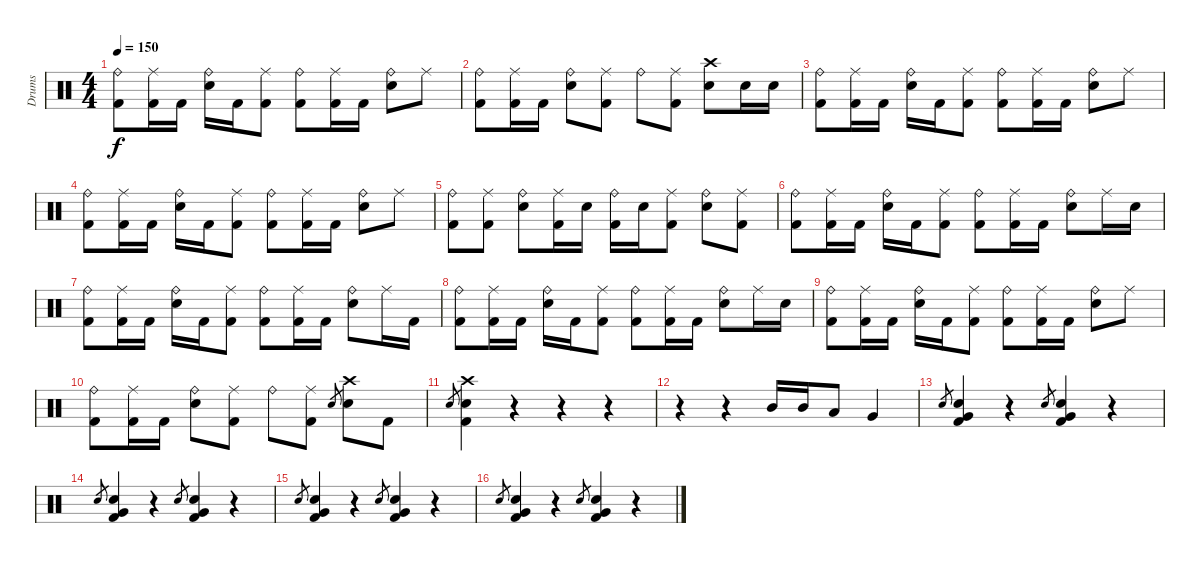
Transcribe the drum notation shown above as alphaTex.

\track ("Drums" "Drums") {instrument percussion}
\staff {score}
\articulation defaults
\ts (4 4)
\tempo 150
\clef neutral
\ks c
("Ride (bell)" "Kick (hit) 2").8{dy f} ("Ride (middle)" "Kick (hit) 2").16 "Kick (hit) 2".16 ("Ride (bell)" "Electric Snare (hit)").16 "Kick (hit) 2".16 ("Ride (middle)" "Kick (hit) 2").8 ("Ride (bell)" "Kick (hit) 2").8 ("Ride (middle)" "Kick (hit) 2").16 "Kick (hit) 2".16 ("Ride (bell)" "Electric Snare (hit)").8 "Ride (middle)".8 |
("Ride (bell)" "Kick (hit) 2").8 ("Ride (middle)" "Kick (hit) 2").16 "Kick (hit) 2".16 ("Ride (bell)" "Electric Snare (hit)").8 ("Ride (middle)" "Kick (hit) 2").8 "Ride (bell)".8 ("Ride (middle)" "Kick (hit) 2").8 ("Crash high (hit)" "Electric Snare (hit)").8 "Electric Snare (hit)".16 "Electric Snare (hit)".16 |
("Ride (bell)" "Kick (hit) 2").8 ("Ride (middle)" "Kick (hit) 2").16 "Kick (hit) 2".16 ("Ride (bell)" "Electric Snare (hit)").16 "Kick (hit) 2".16 ("Ride (middle)" "Kick (hit) 2").8 ("Ride (bell)" "Kick (hit) 2").8 ("Ride (middle)" "Kick (hit) 2").16 "Kick (hit) 2".16 ("Ride (bell)" "Electric Snare (hit)").8 "Ride (middle)".8 |
("Ride (bell)" "Kick (hit) 2").8 ("Ride (middle)" "Kick (hit) 2").16 "Kick (hit) 2".16 ("Ride (bell)" "Electric Snare (hit)").16 "Kick (hit) 2".16 ("Ride (middle)" "Kick (hit) 2").8 ("Ride (bell)" "Kick (hit) 2").8 ("Ride (middle)" "Kick (hit) 2").16 "Kick (hit) 2".16 ("Ride (bell)" "Electric Snare (hit)").8 "Ride (middle)".8 |
("Ride (bell)" "Kick (hit) 2").8 ("Ride (middle)" "Kick (hit) 2").8 ("Ride (bell)" "Electric Snare (hit)").8 ("Ride (middle)" "Kick (hit) 2").16 "Electric Snare (hit)".16 ("Ride (bell)" "Kick (hit) 2").16 "Electric Snare (hit)".16 ("Ride (middle)" "Kick (hit) 2").8 ("Ride (bell)" "Electric Snare (hit)").8 ("Ride (middle)" "Kick (hit) 2").8 |
("Ride (bell)" "Kick (hit) 2").8 ("Ride (middle)" "Kick (hit) 2").16 "Kick (hit) 2".16 ("Ride (bell)" "Electric Snare (hit)").16 "Kick (hit) 2".16 ("Ride (middle)" "Kick (hit) 2").8 ("Ride (bell)" "Kick (hit) 2").8 ("Ride (middle)" "Kick (hit) 2").16 "Kick (hit) 2".16 ("Ride (bell)" "Electric Snare (hit)").8 "Ride (middle)".16 "Electric Snare (hit)".16 |
("Ride (bell)" "Kick (hit) 2").8 ("Ride (middle)" "Kick (hit) 2").16 "Kick (hit) 2".16 ("Ride (bell)" "Electric Snare (hit)").16 "Kick (hit) 2".16 ("Ride (middle)" "Kick (hit) 2").8 ("Ride (bell)" "Kick (hit) 2").8 ("Ride (middle)" "Kick (hit) 2").16 "Kick (hit) 2".16 ("Ride (bell)" "Electric Snare (hit)").8 "Ride (middle)".16 "Kick (hit) 2".16 |
("Ride (bell)" "Kick (hit) 2").8 ("Ride (middle)" "Kick (hit) 2").16 "Kick (hit) 2".16 ("Ride (bell)" "Electric Snare (hit)").16 "Kick (hit) 2".16 ("Ride (middle)" "Kick (hit) 2").8 ("Ride (bell)" "Kick (hit) 2").8 ("Ride (middle)" "Kick (hit) 2").16 "Kick (hit) 2".16 ("Ride (bell)" "Electric Snare (hit)").8 "Ride (middle)".16 "Electric Snare (hit)".16 |
("Ride (bell)" "Kick (hit) 2").8 ("Ride (middle)" "Kick (hit) 2").16 "Kick (hit) 2".16 ("Ride (bell)" "Electric Snare (hit)").16 "Kick (hit) 2".16 ("Ride (middle)" "Kick (hit) 2").8 ("Ride (bell)" "Kick (hit) 2").8 ("Ride (middle)" "Kick (hit) 2").16 "Kick (hit) 2".16 ("Ride (bell)" "Electric Snare (hit)").8 "Ride (middle)".8 |
("Ride (bell)" "Kick (hit) 2").8 ("Ride (middle)" "Kick (hit) 2").16 "Kick (hit) 2".16 ("Ride (bell)" "Electric Snare (hit)").8 ("Ride (middle)" "Kick (hit) 2").8 "Ride (bell)".8 ("Ride (middle)" "Kick (hit) 2").8 "Electric Snare (hit)".8{gr} ("Crash high (hit)" "Electric Snare (hit)").8 "Kick (hit) 2".8 |
"Electric Snare (hit)".8{gr} ("Crash high (hit)" "Electric Snare (hit)" "Kick (hit) 2").4 r.4 r.4 r.4 |
r.4 r.4 "Mid Tom (hit)".16 "Mid Tom (hit)".16 "Low Tom (hit)".8 "Very Low Tom (hit)".4 |
"Electric Snare (hit)".8{gr} ("Very Low Tom (hit)" "Electric Snare (hit)" "Kick (hit) 2").4 r.4 "Electric Snare (hit)".8{gr} ("Very Low Tom (hit)" "Electric Snare (hit)" "Kick (hit) 2").4 r.4 |
"Electric Snare (hit)".8{gr} ("Very Low Tom (hit)" "Electric Snare (hit)" "Kick (hit) 2").4 r.4 "Electric Snare (hit)".8{gr} ("Very Low Tom (hit)" "Electric Snare (hit)" "Kick (hit) 2").4 r.4 |
"Electric Snare (hit)".8{gr} ("Very Low Tom (hit)" "Electric Snare (hit)" "Kick (hit) 2").4 r.4 "Electric Snare (hit)".8{gr} ("Very Low Tom (hit)" "Electric Snare (hit)" "Kick (hit) 2").4 r.4 |
"Electric Snare (hit)".8{gr} ("Very Low Tom (hit)" "Electric Snare (hit)" "Kick (hit) 2").4 r.4 "Electric Snare (hit)".8{gr} ("Very Low Tom (hit)" "Electric Snare (hit)" "Kick (hit) 2").4 r.4
